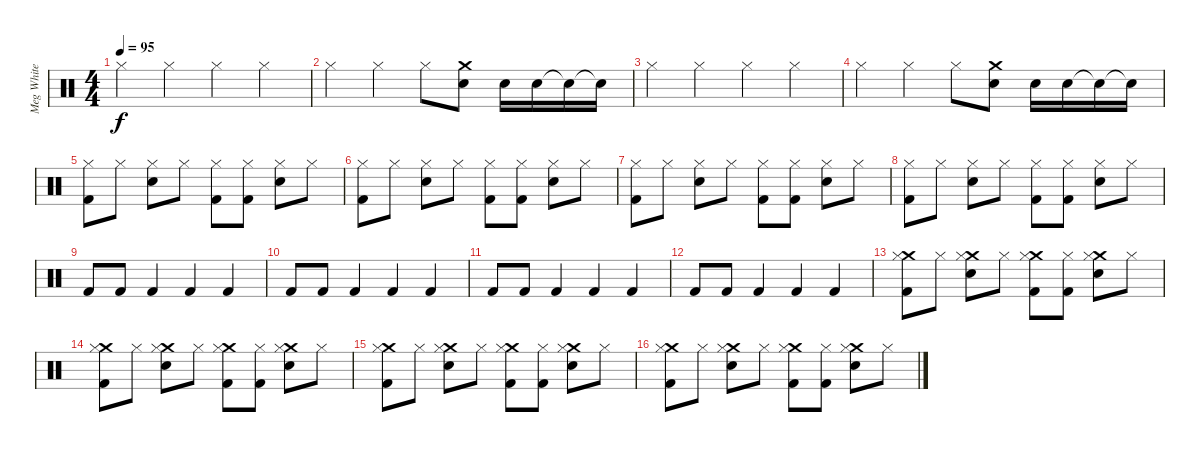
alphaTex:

\track ("Meg White - Drums" "Meg White ") {instrument percussion}
\staff {score}
\articulation defaults
\ts (4 4)
\tempo 95
\clef neutral
\ks c "Hi-Hat (closed)".4{dy f} "Hi-Hat (closed)".4 "Hi-Hat (closed)".4 "Hi-Hat (closed)".4
|
"Hi-Hat (closed)".4 "Hi-Hat (closed)".4 "Hi-Hat (closed)".8 ("Crash medium (hit)" "Snare (hit) 2").8 "Snare (hit) 2".16 "Snare (hit) 2".16 "Snare (hit)"{t}.16 "Snare (hit)"{t}.16 |
"Hi-Hat (closed)".4 "Hi-Hat (closed)".4 "Hi-Hat (closed)".4 "Hi-Hat (closed)".4 |
"Hi-Hat (closed)".4 "Hi-Hat (closed)".4 "Hi-Hat (closed)".8 ("Crash medium (hit)" "Snare (hit) 2").8 "Snare (hit) 2".16 "Snare (hit) 2".16 "Snare (hit)"{t}.16 "Snare (hit)"{t}.16 |
("Hi-Hat (closed)" "Kick (hit) 2").8 "Hi-Hat (closed)".8 ("Snare (hit) 2" "Hi-Hat (closed)").8 "Hi-Hat (closed)".8 ("Hi-Hat (closed)" "Kick (hit) 2").8 ("Hi-Hat (closed)" "Kick (hit) 2").8 ("Snare (hit) 2" "Hi-Hat (closed)").8 "Hi-Hat (closed)".8 |
("Hi-Hat (closed)" "Kick (hit) 2").8 "Hi-Hat (closed)".8 ("Snare (hit) 2" "Hi-Hat (closed)").8 "Hi-Hat (closed)".8 ("Hi-Hat (closed)" "Kick (hit) 2").8 ("Hi-Hat (closed)" "Kick (hit) 2").8 ("Snare (hit) 2" "Hi-Hat (closed)").8 "Hi-Hat (closed)".8 |
("Hi-Hat (closed)" "Kick (hit) 2").8 "Hi-Hat (closed)".8 ("Snare (hit) 2" "Hi-Hat (closed)").8 "Hi-Hat (closed)".8 ("Hi-Hat (closed)" "Kick (hit) 2").8 ("Hi-Hat (closed)" "Kick (hit) 2").8 ("Snare (hit) 2" "Hi-Hat (closed)").8 "Hi-Hat (closed)".8 |
("Hi-Hat (closed)" "Kick (hit) 2").8 "Hi-Hat (closed)".8 ("Snare (hit) 2" "Hi-Hat (closed)").8 "Hi-Hat (closed)".8 ("Hi-Hat (closed)" "Kick (hit) 2").8 ("Hi-Hat (closed)" "Kick (hit) 2").8 ("Snare (hit) 2" "Hi-Hat (closed)").8 "Hi-Hat (closed)".8 |
"Kick (hit) 2".8 "Kick (hit) 2".8 "Kick (hit) 2".4 "Kick (hit) 2".4 "Kick (hit) 2".4 |
"Kick (hit) 2".8 "Kick (hit) 2".8 "Kick (hit) 2".4 "Kick (hit) 2".4 "Kick (hit) 2".4 |
"Kick (hit) 2".8 "Kick (hit) 2".8 "Kick (hit) 2".4 "Kick (hit) 2".4 "Kick (hit) 2".4 |
"Kick (hit) 2".8 "Kick (hit) 2".8 "Kick (hit) 2".4 "Kick (hit) 2".4 "Kick (hit) 2".4 |
("Crash medium (hit)" "Hi-Hat (closed)" "Kick (hit) 2").8 "Hi-Hat (closed)".8 ("Crash medium (hit)" "Snare (hit) 2" "Hi-Hat (closed)").8 "Hi-Hat (closed)".8 ("Crash medium (hit)" "Hi-Hat (closed)" "Kick (hit) 2").8 ("Hi-Hat (closed)" "Kick (hit) 2").8 ("Crash medium (hit)" "Snare (hit) 2" "Hi-Hat (closed)").8 "Hi-Hat (closed)".8 |
("Crash medium (hit)" "Hi-Hat (closed)" "Kick (hit) 2").8 "Hi-Hat (closed)".8 ("Crash medium (hit)" "Snare (hit) 2" "Hi-Hat (closed)").8 "Hi-Hat (closed)".8 ("Crash medium (hit)" "Hi-Hat (closed)" "Kick (hit) 2").8 ("Hi-Hat (closed)" "Kick (hit) 2").8 ("Crash medium (hit)" "Snare (hit) 2" "Hi-Hat (closed)").8 "Hi-Hat (closed)".8 |
("Crash medium (hit)" "Hi-Hat (closed)" "Kick (hit) 2").8 "Hi-Hat (closed)".8 ("Crash medium (hit)" "Snare (hit) 2" "Hi-Hat (closed)").8 "Hi-Hat (closed)".8 ("Crash medium (hit)" "Hi-Hat (closed)" "Kick (hit) 2").8 ("Hi-Hat (closed)" "Kick (hit) 2").8 ("Crash medium (hit)" "Snare (hit) 2" "Hi-Hat (closed)").8 "Hi-Hat (closed)".8 |
("Crash medium (hit)" "Hi-Hat (closed)" "Kick (hit) 2").8 "Hi-Hat (closed)".8 ("Crash medium (hit)" "Snare (hit) 2" "Hi-Hat (closed)").8 "Hi-Hat (closed)".8 ("Crash medium (hit)" "Hi-Hat (closed)" "Kick (hit) 2").8 ("Hi-Hat (closed)" "Kick (hit) 2").8 ("Crash medium (hit)" "Snare (hit) 2" "Hi-Hat (closed)").8 "Hi-Hat (closed)".8
